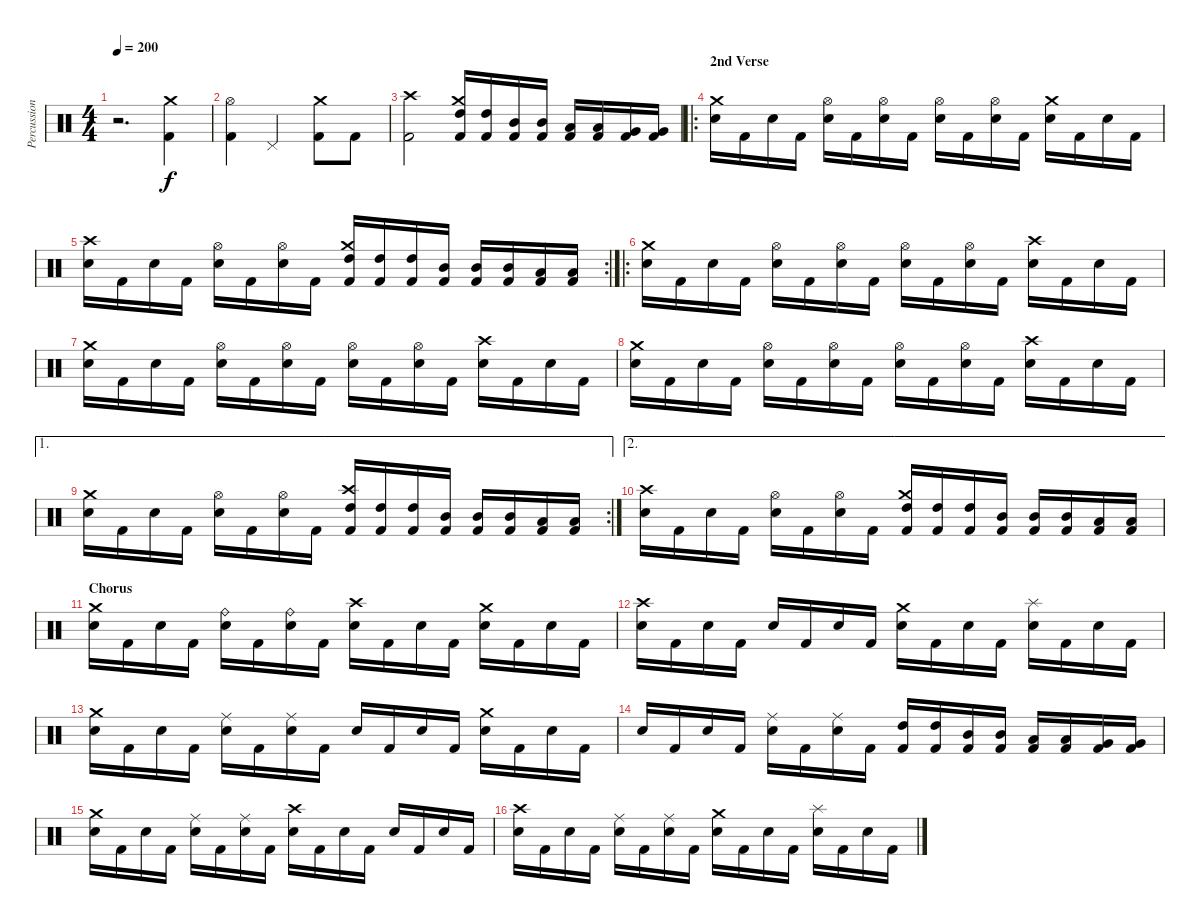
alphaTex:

\track ("Percussion" "Percussion") {instrument percussion}
\staff {score}
\articulation defaults
\ts (4 4)
\tempo 200
\clef neutral
\ks c
r.2{d dy f} ("Kick (hit) 2" "Crash medium (hit)").4 |
("Kick (hit) 2" "Hi-Hat (open)").4 "Pedal Hi-Hat (hit)".2 ("Kick (hit) 2" "Crash medium (hit)").8 "Kick (hit) 2".8 |
("Kick (hit) 2" "Crash high (hit)").2 ("Kick (hit) 2" "High Tom (hit)" "Crash medium (hit)").16 ("Kick (hit) 2" "High Tom (hit)").16 ("Kick (hit) 2" "Mid Tom (hit)").16 ("Kick (hit) 2" "Mid Tom (hit)").16 ("Kick (hit) 2" "Low Tom (hit)").16 ("Kick (hit) 2" "Low Tom (hit)").16 ("Kick (hit) 2" "Very Low Tom (hit)").16 ("Kick (hit) 2" "Very Low Tom (hit)").16 |
\ro
\section ("" "2nd Verse")
("Snare (hit) 2" "Crash medium (hit)").16 "Kick (hit) 2".16 "Snare (hit) 2".16 "Kick (hit) 2".16 ("Snare (hit) 2" "Hi-Hat (open)").16 "Kick (hit) 2".16 ("Snare (hit) 2" "Hi-Hat (open)").16 "Kick (hit) 2".16 ("Snare (hit) 2" "Hi-Hat (open)").16 "Kick (hit) 2".16 ("Snare (hit) 2" "Hi-Hat (open)").16 "Kick (hit) 2".16 ("Snare (hit) 2" "Crash medium (hit)").16 "Kick (hit) 2".16 "Snare (hit) 2".16 "Kick (hit) 2".16 |
\rc 2
("Snare (hit) 2" "Crash high (hit)").16 "Kick (hit) 2".16 "Snare (hit) 2".16 "Kick (hit) 2".16 ("Snare (hit) 2" "Hi-Hat (open)").16 "Kick (hit) 2".16 ("Snare (hit) 2" "Hi-Hat (open)").16 "Kick (hit) 2".16 ("Kick (hit) 2" "High Tom (hit)" "Crash medium (hit)").16 ("Kick (hit) 2" "High Tom (hit)").16 ("Kick (hit) 2" "High Tom (hit)").16 ("Kick (hit) 2" "Mid Tom (hit)").16 ("Kick (hit) 2" "Mid Tom (hit)").16 ("Kick (hit) 2" "Mid Tom (hit)").16 ("Kick (hit) 2" "Low Tom (hit)").16 ("Kick (hit) 2" "Low Tom (hit)").16 |
\ro
("Snare (hit) 2" "Crash medium (hit)").16 "Kick (hit) 2".16 "Snare (hit) 2".16 "Kick (hit) 2".16 ("Snare (hit) 2" "Hi-Hat (open)").16 "Kick (hit) 2".16 ("Snare (hit) 2" "Hi-Hat (open)").16 "Kick (hit) 2".16 ("Snare (hit) 2" "Hi-Hat (open)").16 "Kick (hit) 2".16 ("Snare (hit) 2" "Hi-Hat (open)").16 "Kick (hit) 2".16 ("Snare (hit) 2" "Crash high (hit)").16 "Kick (hit) 2".16 "Snare (hit) 2".16 "Kick (hit) 2".16 |
("Snare (hit) 2" "Crash medium (hit)").16 "Kick (hit) 2".16 "Snare (hit) 2".16 "Kick (hit) 2".16 ("Snare (hit) 2" "Hi-Hat (open)").16 "Kick (hit) 2".16 ("Snare (hit) 2" "Hi-Hat (open)").16 "Kick (hit) 2".16 ("Snare (hit) 2" "Hi-Hat (open)").16 "Kick (hit) 2".16 ("Snare (hit) 2" "Hi-Hat (open)").16 "Kick (hit) 2".16 ("Snare (hit) 2" "Crash high (hit)").16 "Kick (hit) 2".16 "Snare (hit) 2".16 "Kick (hit) 2".16 |
("Snare (hit) 2" "Crash medium (hit)").16 "Kick (hit) 2".16 "Snare (hit) 2".16 "Kick (hit) 2".16 ("Snare (hit) 2" "Hi-Hat (open)").16 "Kick (hit) 2".16 ("Snare (hit) 2" "Hi-Hat (open)").16 "Kick (hit) 2".16 ("Snare (hit) 2" "Hi-Hat (open)").16 "Kick (hit) 2".16 ("Snare (hit) 2" "Hi-Hat (open)").16 "Kick (hit) 2".16 ("Snare (hit) 2" "Crash high (hit)").16 "Kick (hit) 2".16 "Snare (hit) 2".16 "Kick (hit) 2".16 |
\ae 1
\rc 2
("Snare (hit) 2" "Crash medium (hit)").16 "Kick (hit) 2".16 "Snare (hit) 2".16 "Kick (hit) 2".16 ("Snare (hit) 2" "Hi-Hat (open)").16 "Kick (hit) 2".16 ("Snare (hit) 2" "Hi-Hat (open)").16 "Kick (hit) 2".16 ("Kick (hit) 2" "High Tom (hit)" "Crash high (hit)").16 ("Kick (hit) 2" "High Tom (hit)").16 ("Kick (hit) 2" "High Tom (hit)").16 ("Kick (hit) 2" "Mid Tom (hit)").16 ("Kick (hit) 2" "Mid Tom (hit)").16 ("Kick (hit) 2" "Mid Tom (hit)").16 ("Kick (hit) 2" "Low Tom (hit)").16 ("Kick (hit) 2" "Low Tom (hit)").16 |
\ae 2
("Snare (hit) 2" "Crash high (hit)").16 "Kick (hit) 2".16 "Snare (hit) 2".16 "Kick (hit) 2".16 ("Snare (hit) 2" "Hi-Hat (open)").16 "Kick (hit) 2".16 ("Snare (hit) 2" "Hi-Hat (open)").16 "Kick (hit) 2".16 ("Kick (hit) 2" "High Tom (hit)" "Crash medium (hit)").16 ("Kick (hit) 2" "High Tom (hit)").16 ("Kick (hit) 2" "High Tom (hit)").16 ("Kick (hit) 2" "Mid Tom (hit)").16 ("Kick (hit) 2" "Mid Tom (hit)").16 ("Kick (hit) 2" "Mid Tom (hit)").16 ("Kick (hit) 2" "Low Tom (hit)").16 ("Kick (hit) 2" "Low Tom (hit)").16 |
\section ("" "Chorus")
("Snare (hit) 2" "Crash medium (hit)").16 "Kick (hit) 2".16 "Snare (hit) 2".16 "Kick (hit) 2".16 ("Snare (hit) 2" "Ride (bell)").16 "Kick (hit) 2".16 ("Snare (hit) 2" "Ride (bell)").16 "Kick (hit) 2".16 ("Snare (hit) 2" "Crash high (hit)").16 "Kick (hit) 2".16 "Snare (hit) 2".16 "Kick (hit) 2".16 ("Snare (hit) 2" "Crash medium (hit)").16 "Kick (hit) 2".16 "Snare (hit) 2".16 "Kick (hit) 2".16 |
("Snare (hit) 2" "Crash high (hit)").16 "Kick (hit) 2".16 "Snare (hit) 2".16 "Kick (hit) 2".16 "Snare (hit) 2".16 "Kick (hit) 2".16 "Snare (hit) 2".16 "Kick (hit) 2".16 ("Snare (hit) 2" "Crash medium (hit)").16 "Kick (hit) 2".16 "Snare (hit) 2".16 "Kick (hit) 2".16 ("Snare (hit) 2" "Splash (hit)").16 "Kick (hit) 2".16 "Snare (hit) 2".16 "Kick (hit) 2".16 |
("Snare (hit) 2" "Crash medium (hit)").16 "Kick (hit) 2".16 "Snare (hit) 2".16 "Kick (hit) 2".16 ("Snare (hit) 2" "Ride (middle)").16 "Kick (hit) 2".16 ("Snare (hit) 2" "Ride (middle)").16 "Kick (hit) 2".16 "Snare (hit) 2".16 "Kick (hit) 2".16 "Snare (hit) 2".16 "Kick (hit) 2".16 ("Snare (hit) 2" "Crash medium (hit)").16 "Kick (hit) 2".16 "Snare (hit) 2".16 "Kick (hit) 2".16 |
"Snare (hit) 2".16 "Kick (hit) 2".16 "Snare (hit) 2".16 "Kick (hit) 2".16 ("Snare (hit) 2" "Ride (middle)").16 "Kick (hit) 2".16 ("Snare (hit) 2" "Ride (middle)").16 "Kick (hit) 2".16 ("Kick (hit) 2" "High Tom (hit)").16 ("Kick (hit) 2" "High Tom (hit)").16 ("Kick (hit) 2" "Mid Tom (hit)").16 ("Kick (hit) 2" "Mid Tom (hit)").16 ("Kick (hit) 2" "Low Tom (hit)").16 ("Kick (hit) 2" "Low Tom (hit)").16 ("Kick (hit) 2" "Very Low Tom (hit)").16 ("Kick (hit) 2" "Very Low Tom (hit)").16 |
("Snare (hit) 2" "Crash medium (hit)").16 "Kick (hit) 2".16 "Snare (hit) 2".16 "Kick (hit) 2".16 ("Snare (hit) 2" "Ride (middle)").16 "Kick (hit) 2".16 ("Snare (hit) 2" "Ride (middle)").16 "Kick (hit) 2".16 ("Snare (hit) 2" "Crash high (hit)").16 "Kick (hit) 2".16 "Snare (hit) 2".16 "Kick (hit) 2".16 "Snare (hit) 2".16 "Kick (hit) 2".16 "Snare (hit) 2".16 "Kick (hit) 2".16 |
("Snare (hit) 2" "Crash high (hit)").16 "Kick (hit) 2".16 "Snare (hit) 2".16 "Kick (hit) 2".16 ("Snare (hit) 2" "Ride (middle)").16 "Kick (hit) 2".16 ("Snare (hit) 2" "Ride (middle)").16 "Kick (hit) 2".16 ("Snare (hit) 2" "Crash medium (hit)").16 "Kick (hit) 2".16 "Snare (hit) 2".16 "Kick (hit) 2".16 ("Snare (hit) 2" "Splash (hit)").16 "Kick (hit) 2".16 "Snare (hit) 2".16 "Kick (hit) 2".16
